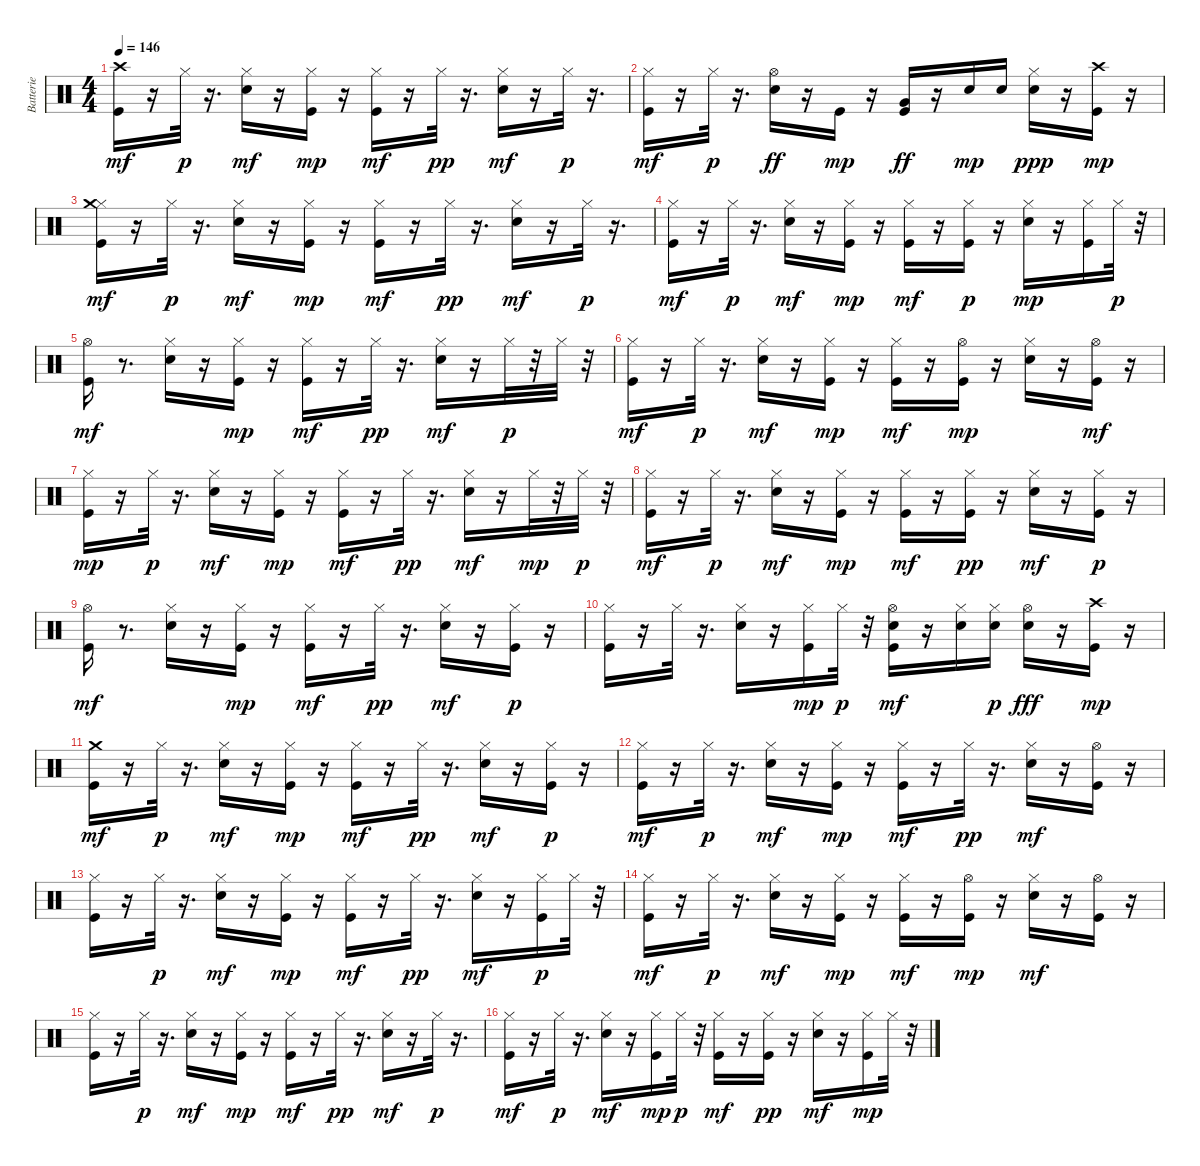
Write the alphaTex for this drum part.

\track ("Batterie" "Batterie") {instrument percussion}
\staff {score}
\articulation defaults
\ts (4 4)
\tempo 146
\clef neutral
\ks c
("Kick (hit)" "Crash high (hit)").16{dy mf} r.16 "Hi-Hat (closed)".32{dy p} r.16{d} ("Electric Snare (hit)" "Hi-Hat (closed)").16{dy mf} r.16 ("Kick (hit)" "Hi-Hat (closed)").16{dy mp} r.16 ("Kick (hit)" "Hi-Hat (closed)").16{dy mf} r.16 "Hi-Hat (closed)".32{dy pp} r.16{d} ("Electric Snare (hit)" "Hi-Hat (closed)").16{dy mf} r.16 "Hi-Hat (closed)".32{dy p} r.16{d} |
("Kick (hit)" "Hi-Hat (closed)").16{dy mf} r.16 "Hi-Hat (closed)".32{dy p} r.16{d} ("Electric Snare (hit)" "Hi-Hat (open)").16{dy ff} r.16 "Kick (hit)".16{dy mp} r.16 ("Kick (hit)" "Very Low Tom (hit)").16{dy ff} r.16 "Electric Snare (hit)".16{dy mp} "Electric Snare (hit)".16 ("Electric Snare (hit)" "Hi-Hat (closed)").16{dy ppp} r.16 ("Kick (hit)" "Crash high (hit)").16{dy mp} r.16 |
("Kick (hit)" "Hi-Hat (closed)" "Crash medium (hit)").16{dy mf} r.16 "Hi-Hat (closed)".32{dy p} r.16{d} ("Electric Snare (hit)" "Hi-Hat (closed)").16{dy mf} r.16 ("Kick (hit)" "Hi-Hat (closed)").16{dy mp} r.16 ("Kick (hit)" "Hi-Hat (closed)").16{dy mf} r.16 "Hi-Hat (closed)".32{dy pp} r.16{d} ("Electric Snare (hit)" "Hi-Hat (closed)").16{dy mf} r.16 "Hi-Hat (closed)".32{dy p} r.16{d} |
("Kick (hit)" "Hi-Hat (closed)").16{dy mf} r.16 "Hi-Hat (closed)".32{dy p} r.16{d} ("Electric Snare (hit)" "Hi-Hat (closed)").16{dy mf} r.16 ("Kick (hit)" "Hi-Hat (closed)").16{dy mp} r.16 ("Kick (hit)" "Hi-Hat (closed)").16{dy mf} r.16 ("Kick (hit)" "Hi-Hat (closed)").16{dy p} r.16 ("Electric Snare (hit)" "Hi-Hat (closed)").16{dy mp} r.16 ("Kick (hit)" "Hi-Hat (closed)").16 "Hi-Hat (closed)".32{dy p} r.32 |
("Kick (hit)" "Hi-Hat (open)").16{dy mf} r.8{d} ("Electric Snare (hit)" "Hi-Hat (closed)").16 r.16 ("Kick (hit)" "Hi-Hat (closed)").16{dy mp} r.16 ("Kick (hit)" "Hi-Hat (closed)").16{dy mf} r.16 "Hi-Hat (closed)".32{dy pp} r.16{d} ("Electric Snare (hit)" "Hi-Hat (closed)").16{dy mf} r.16 "Hi-Hat (closed)".32{dy p} r.32 "Hi-Hat (closed)".32 r.32 |
("Kick (hit)" "Hi-Hat (closed)").16{dy mf} r.16 "Hi-Hat (closed)".32{dy p} r.16{d} ("Electric Snare (hit)" "Hi-Hat (closed)").16{dy mf} r.16 ("Kick (hit)" "Hi-Hat (closed)").16{dy mp} r.16 ("Kick (hit)" "Hi-Hat (closed)").16{dy mf} r.16 ("Kick (hit)" "Hi-Hat (open)").16{dy mp} r.16 ("Electric Snare (hit)" "Hi-Hat (closed)").16 r.16 ("Kick (hit)" "Hi-Hat (open)").16{dy mf} r.16 |
("Kick (hit)" "Hi-Hat (closed)").16{dy mp} r.16 "Hi-Hat (closed)".32{dy p} r.16{d} ("Electric Snare (hit)" "Hi-Hat (closed)").16{dy mf} r.16 ("Kick (hit)" "Hi-Hat (closed)").16{dy mp} r.16 ("Kick (hit)" "Hi-Hat (closed)").16{dy mf} r.16 "Hi-Hat (closed)".32{dy pp} r.16{d} ("Electric Snare (hit)" "Hi-Hat (closed)").16{dy mf} r.16 "Hi-Hat (closed)".32{dy mp} r.32 "Hi-Hat (closed)".32{dy p} r.32 |
("Kick (hit)" "Hi-Hat (closed)").16{dy mf} r.16 "Hi-Hat (closed)".32{dy p} r.16{d} ("Electric Snare (hit)" "Hi-Hat (closed)").16{dy mf} r.16 ("Kick (hit)" "Hi-Hat (closed)").16{dy mp} r.16 ("Kick (hit)" "Hi-Hat (closed)").16{dy mf} r.16 ("Kick (hit)" "Hi-Hat (closed)").16{dy pp} r.16 ("Electric Snare (hit)" "Hi-Hat (closed)").16{dy mf} r.16 ("Kick (hit)" "Hi-Hat (closed)").16{dy p} r.16 |
("Kick (hit)" "Hi-Hat (open)").16{dy mf} r.8{d} ("Electric Snare (hit)" "Hi-Hat (closed)").16 r.16 ("Kick (hit)" "Hi-Hat (closed)").16{dy mp} r.16 ("Kick (hit)" "Hi-Hat (closed)").16{dy mf} r.16 "Hi-Hat (closed)".32{dy pp} r.16{d} ("Electric Snare (hit)" "Hi-Hat (closed)").16{dy mf} r.16 ("Kick (hit)" "Hi-Hat (closed)").16{dy p} r.16 |
("Kick (hit)" "Hi-Hat (closed)").16 r.16 "Hi-Hat (closed)".32 r.16{d} ("Electric Snare (hit)" "Hi-Hat (closed)").16 r.16 ("Kick (hit)" "Hi-Hat (closed)").16{dy mp} "Hi-Hat (closed)".32{dy p} r.32 ("Kick (hit)" "Electric Snare (hit)" "Hi-Hat (open)").16{dy mf} r.16 ("Electric Snare (hit)" "Hi-Hat (closed)").16 ("Electric Snare (hit)" "Hi-Hat (closed)").16{dy p} ("Electric Snare (hit)" "Hi-Hat (open)").16{dy fff} r.16 ("Kick (hit)" "Crash high (hit)").16{dy mp} r.16 |
("Kick (hit)" "Crash medium (hit)").16{dy mf} r.16 "Hi-Hat (closed)".32{dy p} r.16{d} ("Electric Snare (hit)" "Hi-Hat (closed)").16{dy mf} r.16 ("Kick (hit)" "Hi-Hat (closed)").16{dy mp} r.16 ("Kick (hit)" "Hi-Hat (closed)").16{dy mf} r.16 "Hi-Hat (closed)".32{dy pp} r.16{d} ("Electric Snare (hit)" "Hi-Hat (closed)").16{dy mf} r.16 ("Kick (hit)" "Hi-Hat (closed)").16{dy p} r.16 |
("Kick (hit)" "Hi-Hat (closed)").16{dy mf} r.16 "Hi-Hat (closed)".32{dy p} r.16{d} ("Electric Snare (hit)" "Hi-Hat (closed)").16{dy mf} r.16 ("Kick (hit)" "Hi-Hat (closed)").16{dy mp} r.16 ("Kick (hit)" "Hi-Hat (closed)").16{dy mf} r.16 "Hi-Hat (closed)".32{dy pp} r.16{d} ("Electric Snare (hit)" "Hi-Hat (closed)").16{dy mf} r.16 ("Kick (hit)" "Hi-Hat (open)").16 r.16 |
("Kick (hit)" "Hi-Hat (closed)").16 r.16 "Hi-Hat (closed)".32{dy p} r.16{d} ("Electric Snare (hit)" "Hi-Hat (closed)").16{dy mf} r.16 ("Kick (hit)" "Hi-Hat (closed)").16{dy mp} r.16 ("Kick (hit)" "Hi-Hat (closed)").16{dy mf} r.16 "Hi-Hat (closed)".32{dy pp} r.16{d} ("Electric Snare (hit)" "Hi-Hat (closed)").16{dy mf} r.16 ("Kick (hit)" "Hi-Hat (closed)").16{dy p} "Hi-Hat (closed)".32 r.32 |
("Kick (hit)" "Hi-Hat (closed)").16{dy mf} r.16 "Hi-Hat (closed)".32{dy p} r.16{d} ("Electric Snare (hit)" "Hi-Hat (closed)").16{dy mf} r.16 ("Kick (hit)" "Hi-Hat (closed)").16{dy mp} r.16 ("Kick (hit)" "Hi-Hat (closed)").16{dy mf} r.16 ("Kick (hit)" "Hi-Hat (open)").16{dy mp} r.16 ("Electric Snare (hit)" "Hi-Hat (closed)").16{dy mf} r.16 ("Kick (hit)" "Hi-Hat (open)").16 r.16 |
("Kick (hit)" "Hi-Hat (closed)").16 r.16 "Hi-Hat (closed)".32{dy p} r.16{d} ("Electric Snare (hit)" "Hi-Hat (closed)").16{dy mf} r.16 ("Kick (hit)" "Hi-Hat (closed)").16{dy mp} r.16 ("Kick (hit)" "Hi-Hat (closed)").16{dy mf} r.16 "Hi-Hat (closed)".32{dy pp} r.16{d} ("Electric Snare (hit)" "Hi-Hat (closed)").16{dy mf} r.16 "Hi-Hat (closed)".32{dy p} r.16{d} |
("Kick (hit)" "Hi-Hat (closed)").16{dy mf} r.16 "Hi-Hat (closed)".32{dy p} r.16{d} ("Electric Snare (hit)" "Hi-Hat (closed)").16{dy mf} r.16 ("Kick (hit)" "Hi-Hat (closed)").16{dy mp} "Hi-Hat (closed)".32{dy p} r.32 ("Kick (hit)" "Hi-Hat (closed)").16{dy mf} r.16 ("Kick (hit)" "Hi-Hat (closed)").16{dy pp} r.16 ("Electric Snare (hit)" "Hi-Hat (closed)").16{dy mf} r.16 ("Kick (hit)" "Hi-Hat (closed)").16{dy mp} "Hi-Hat (closed)".32 r.32
